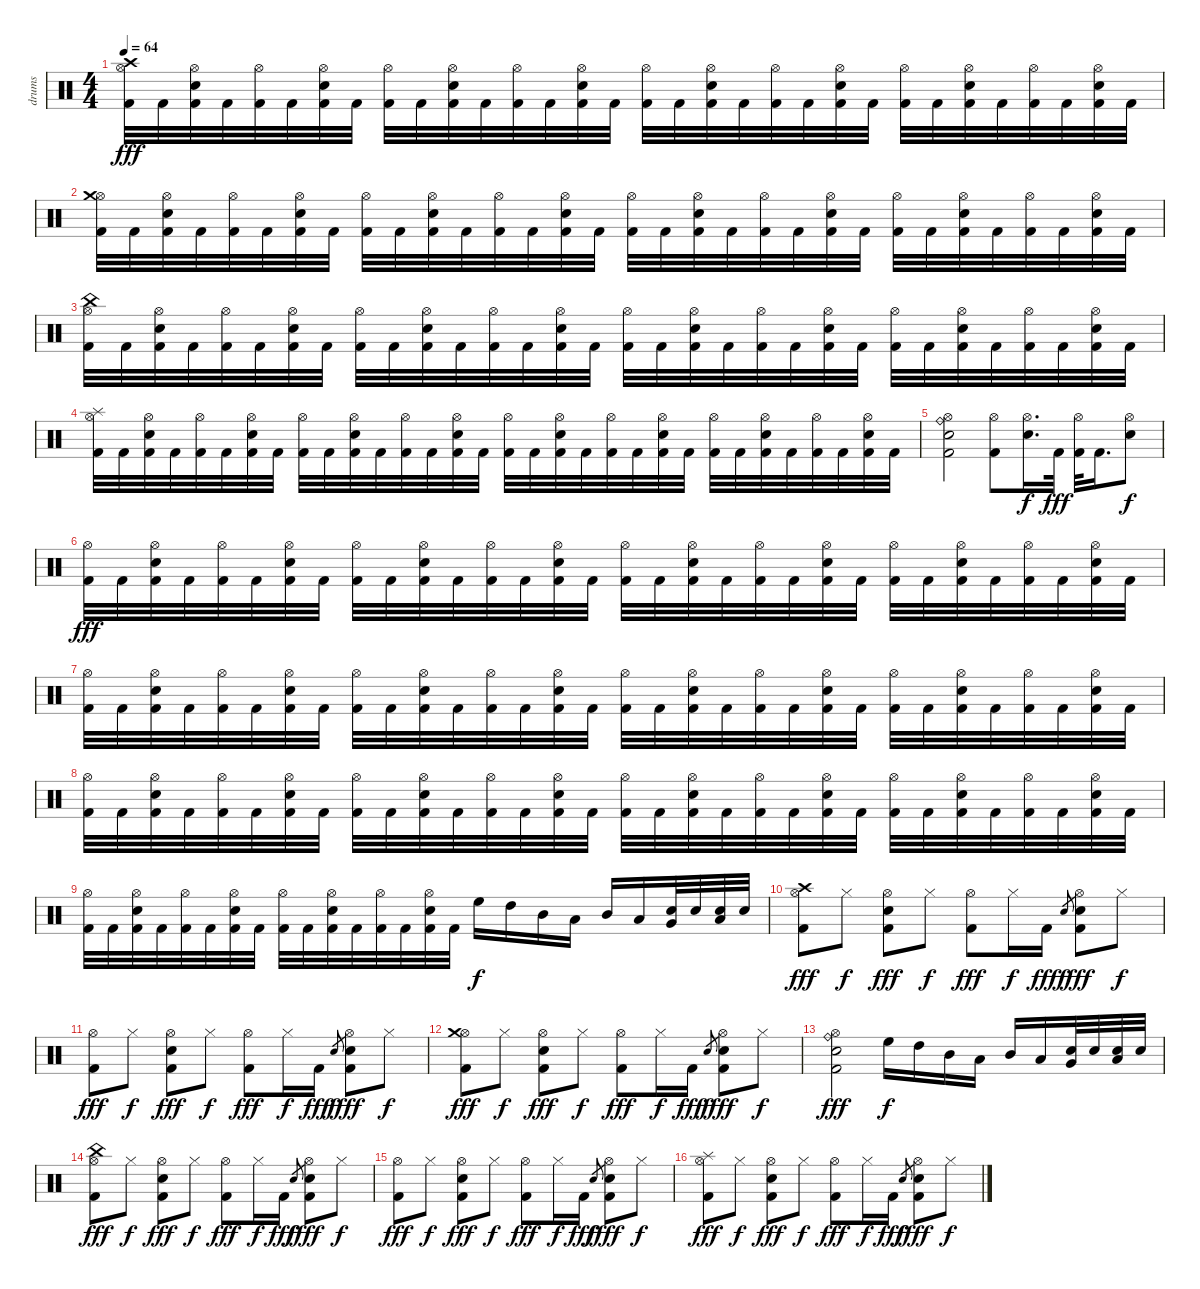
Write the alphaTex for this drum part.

\track ("drums" "drums") {instrument percussion}
\staff {score}
\articulation defaults
\ts (4 4)
\tempo 64
\clef neutral
\ks c
("Kick (hit) 2" "Hi-Hat (open)" "Crash high (hit)").32{dy fff} "Kick (hit) 2".32 ("Kick (hit) 2" "Hi-Hat (open)" "Electric Snare (hit)").32 "Kick (hit) 2".32 ("Kick (hit) 2" "Hi-Hat (open)").32 "Kick (hit) 2".32 ("Kick (hit) 2" "Hi-Hat (open)" "Electric Snare (hit)").32 "Kick (hit) 2".32 ("Kick (hit) 2" "Hi-Hat (open)").32 "Kick (hit) 2".32 ("Kick (hit) 2" "Hi-Hat (open)" "Electric Snare (hit)").32 "Kick (hit) 2".32 ("Kick (hit) 2" "Hi-Hat (open)").32 "Kick (hit) 2".32 ("Kick (hit) 2" "Hi-Hat (open)" "Electric Snare (hit)").32 "Kick (hit) 2".32 ("Kick (hit) 2" "Hi-Hat (open)").32 "Kick (hit) 2".32 ("Kick (hit) 2" "Hi-Hat (open)" "Electric Snare (hit)").32 "Kick (hit) 2".32 ("Kick (hit) 2" "Hi-Hat (open)").32 "Kick (hit) 2".32 ("Kick (hit) 2" "Hi-Hat (open)" "Electric Snare (hit)").32 "Kick (hit) 2".32 ("Kick (hit) 2" "Hi-Hat (open)").32 "Kick (hit) 2".32 ("Kick (hit) 2" "Hi-Hat (open)" "Electric Snare (hit)").32 "Kick (hit) 2".32 ("Kick (hit) 2" "Hi-Hat (open)").32 "Kick (hit) 2".32 ("Kick (hit) 2" "Hi-Hat (open)" "Electric Snare (hit)").32 "Kick (hit) 2".32 |
("Kick (hit) 2" "Hi-Hat (open)" "Crash medium (hit)").32 "Kick (hit) 2".32 ("Kick (hit) 2" "Hi-Hat (open)" "Electric Snare (hit)").32 "Kick (hit) 2".32 ("Kick (hit) 2" "Hi-Hat (open)").32 "Kick (hit) 2".32 ("Kick (hit) 2" "Hi-Hat (open)" "Electric Snare (hit)").32 "Kick (hit) 2".32 ("Kick (hit) 2" "Hi-Hat (open)").32 "Kick (hit) 2".32 ("Kick (hit) 2" "Hi-Hat (open)" "Electric Snare (hit)").32 "Kick (hit) 2".32 ("Kick (hit) 2" "Hi-Hat (open)").32 "Kick (hit) 2".32 ("Kick (hit) 2" "Hi-Hat (open)" "Electric Snare (hit)").32 "Kick (hit) 2".32 ("Kick (hit) 2" "Hi-Hat (open)").32 "Kick (hit) 2".32 ("Kick (hit) 2" "Hi-Hat (open)" "Electric Snare (hit)").32 "Kick (hit) 2".32 ("Kick (hit) 2" "Hi-Hat (open)").32 "Kick (hit) 2".32 ("Kick (hit) 2" "Hi-Hat (open)" "Electric Snare (hit)").32 "Kick (hit) 2".32 ("Kick (hit) 2" "Hi-Hat (open)").32 "Kick (hit) 2".32 ("Kick (hit) 2" "Hi-Hat (open)" "Electric Snare (hit)").32 "Kick (hit) 2".32 ("Kick (hit) 2" "Hi-Hat (open)").32 "Kick (hit) 2".32 ("Kick (hit) 2" "Hi-Hat (open)" "Electric Snare (hit)").32 "Kick (hit) 2".32 |
("Kick (hit) 2" "Hi-Hat (open)" "China (hit)").32 "Kick (hit) 2".32 ("Kick (hit) 2" "Hi-Hat (open)" "Electric Snare (hit)").32 "Kick (hit) 2".32 ("Kick (hit) 2" "Hi-Hat (open)").32 "Kick (hit) 2".32 ("Kick (hit) 2" "Hi-Hat (open)" "Electric Snare (hit)").32 "Kick (hit) 2".32 ("Kick (hit) 2" "Hi-Hat (open)").32 "Kick (hit) 2".32 ("Kick (hit) 2" "Hi-Hat (open)" "Electric Snare (hit)").32 "Kick (hit) 2".32 ("Kick (hit) 2" "Hi-Hat (open)").32 "Kick (hit) 2".32 ("Kick (hit) 2" "Hi-Hat (open)" "Electric Snare (hit)").32 "Kick (hit) 2".32 ("Kick (hit) 2" "Hi-Hat (open)").32 "Kick (hit) 2".32 ("Kick (hit) 2" "Hi-Hat (open)" "Electric Snare (hit)").32 "Kick (hit) 2".32 ("Kick (hit) 2" "Hi-Hat (open)").32 "Kick (hit) 2".32 ("Kick (hit) 2" "Hi-Hat (open)" "Electric Snare (hit)").32 "Kick (hit) 2".32 ("Kick (hit) 2" "Hi-Hat (open)").32 "Kick (hit) 2".32 ("Kick (hit) 2" "Hi-Hat (open)" "Electric Snare (hit)").32 "Kick (hit) 2".32 ("Kick (hit) 2" "Hi-Hat (open)").32 "Kick (hit) 2".32 ("Kick (hit) 2" "Hi-Hat (open)" "Electric Snare (hit)").32 "Kick (hit) 2".32 |
("Kick (hit) 2" "Hi-Hat (open)" "Splash (hit)").32 "Kick (hit) 2".32 ("Kick (hit) 2" "Hi-Hat (open)" "Electric Snare (hit)").32 "Kick (hit) 2".32 ("Kick (hit) 2" "Hi-Hat (open)").32 "Kick (hit) 2".32 ("Kick (hit) 2" "Hi-Hat (open)" "Electric Snare (hit)").32 "Kick (hit) 2".32 ("Kick (hit) 2" "Hi-Hat (open)").32 "Kick (hit) 2".32 ("Kick (hit) 2" "Hi-Hat (open)" "Electric Snare (hit)").32 "Kick (hit) 2".32 ("Kick (hit) 2" "Hi-Hat (open)").32 "Kick (hit) 2".32 ("Kick (hit) 2" "Hi-Hat (open)" "Electric Snare (hit)").32 "Kick (hit) 2".32 ("Kick (hit) 2" "Hi-Hat (open)").32 "Kick (hit) 2".32 ("Kick (hit) 2" "Hi-Hat (open)" "Electric Snare (hit)").32 "Kick (hit) 2".32 ("Kick (hit) 2" "Hi-Hat (open)").32 "Kick (hit) 2".32 ("Kick (hit) 2" "Hi-Hat (open)" "Electric Snare (hit)").32 "Kick (hit) 2".32 ("Kick (hit) 2" "Hi-Hat (open)").32 "Kick (hit) 2".32 ("Kick (hit) 2" "Hi-Hat (open)" "Electric Snare (hit)").32 "Kick (hit) 2".32 ("Kick (hit) 2" "Hi-Hat (open)").32 "Kick (hit) 2".32 ("Kick (hit) 2" "Hi-Hat (open)" "Electric Snare (hit)").32 "Kick (hit) 2".32 |
("Kick (hit) 2" "Hi-Hat (open)" "Electric Snare (hit)" "Ride (bell)").2 ("Kick (hit) 2" "Hi-Hat (open)").8 ("Snare (hit) 2" "Hi-Hat (open)").16{d dy f} "Kick (hit) 2".32{dy fff} ("Kick (hit) 2" "Hi-Hat (open)").32 "Kick (hit) 2".16{d} ("Snare (hit) 2" "Hi-Hat (open)").8{dy f} |
("Kick (hit) 2" "Hi-Hat (open)").32{dy fff} "Kick (hit) 2".32 ("Kick (hit) 2" "Hi-Hat (open)" "Electric Snare (hit)").32 "Kick (hit) 2".32 ("Kick (hit) 2" "Hi-Hat (open)").32 "Kick (hit) 2".32 ("Kick (hit) 2" "Hi-Hat (open)" "Electric Snare (hit)").32 "Kick (hit) 2".32 ("Kick (hit) 2" "Hi-Hat (open)").32 "Kick (hit) 2".32 ("Kick (hit) 2" "Hi-Hat (open)" "Electric Snare (hit)").32 "Kick (hit) 2".32 ("Kick (hit) 2" "Hi-Hat (open)").32 "Kick (hit) 2".32 ("Kick (hit) 2" "Hi-Hat (open)" "Electric Snare (hit)").32 "Kick (hit) 2".32 ("Kick (hit) 2" "Hi-Hat (open)").32 "Kick (hit) 2".32 ("Kick (hit) 2" "Hi-Hat (open)" "Electric Snare (hit)").32 "Kick (hit) 2".32 ("Kick (hit) 2" "Hi-Hat (open)").32 "Kick (hit) 2".32 ("Kick (hit) 2" "Hi-Hat (open)" "Electric Snare (hit)").32 "Kick (hit) 2".32 ("Kick (hit) 2" "Hi-Hat (open)").32 "Kick (hit) 2".32 ("Kick (hit) 2" "Hi-Hat (open)" "Electric Snare (hit)").32 "Kick (hit) 2".32 ("Kick (hit) 2" "Hi-Hat (open)").32 "Kick (hit) 2".32 ("Kick (hit) 2" "Hi-Hat (open)" "Electric Snare (hit)").32 "Kick (hit) 2".32 |
("Kick (hit) 2" "Hi-Hat (open)").32 "Kick (hit) 2".32 ("Kick (hit) 2" "Hi-Hat (open)" "Electric Snare (hit)").32 "Kick (hit) 2".32 ("Kick (hit) 2" "Hi-Hat (open)").32 "Kick (hit) 2".32 ("Kick (hit) 2" "Hi-Hat (open)" "Electric Snare (hit)").32 "Kick (hit) 2".32 ("Kick (hit) 2" "Hi-Hat (open)").32 "Kick (hit) 2".32 ("Kick (hit) 2" "Hi-Hat (open)" "Electric Snare (hit)").32 "Kick (hit) 2".32 ("Kick (hit) 2" "Hi-Hat (open)").32 "Kick (hit) 2".32 ("Kick (hit) 2" "Hi-Hat (open)" "Electric Snare (hit)").32 "Kick (hit) 2".32 ("Kick (hit) 2" "Hi-Hat (open)").32 "Kick (hit) 2".32 ("Kick (hit) 2" "Hi-Hat (open)" "Electric Snare (hit)").32 "Kick (hit) 2".32 ("Kick (hit) 2" "Hi-Hat (open)").32 "Kick (hit) 2".32 ("Kick (hit) 2" "Hi-Hat (open)" "Electric Snare (hit)").32 "Kick (hit) 2".32 ("Kick (hit) 2" "Hi-Hat (open)").32 "Kick (hit) 2".32 ("Kick (hit) 2" "Hi-Hat (open)" "Electric Snare (hit)").32 "Kick (hit) 2".32 ("Kick (hit) 2" "Hi-Hat (open)").32 "Kick (hit) 2".32 ("Kick (hit) 2" "Hi-Hat (open)" "Electric Snare (hit)").32 "Kick (hit) 2".32 |
("Kick (hit) 2" "Hi-Hat (open)").32 "Kick (hit) 2".32 ("Kick (hit) 2" "Hi-Hat (open)" "Electric Snare (hit)").32 "Kick (hit) 2".32 ("Kick (hit) 2" "Hi-Hat (open)").32 "Kick (hit) 2".32 ("Kick (hit) 2" "Hi-Hat (open)" "Electric Snare (hit)").32 "Kick (hit) 2".32 ("Kick (hit) 2" "Hi-Hat (open)").32 "Kick (hit) 2".32 ("Kick (hit) 2" "Hi-Hat (open)" "Electric Snare (hit)").32 "Kick (hit) 2".32 ("Kick (hit) 2" "Hi-Hat (open)").32 "Kick (hit) 2".32 ("Kick (hit) 2" "Hi-Hat (open)" "Electric Snare (hit)").32 "Kick (hit) 2".32 ("Kick (hit) 2" "Hi-Hat (open)").32 "Kick (hit) 2".32 ("Kick (hit) 2" "Hi-Hat (open)" "Electric Snare (hit)").32 "Kick (hit) 2".32 ("Kick (hit) 2" "Hi-Hat (open)").32 "Kick (hit) 2".32 ("Kick (hit) 2" "Hi-Hat (open)" "Electric Snare (hit)").32 "Kick (hit) 2".32 ("Kick (hit) 2" "Hi-Hat (open)").32 "Kick (hit) 2".32 ("Kick (hit) 2" "Hi-Hat (open)" "Electric Snare (hit)").32 "Kick (hit) 2".32 ("Kick (hit) 2" "Hi-Hat (open)").32 "Kick (hit) 2".32 ("Kick (hit) 2" "Hi-Hat (open)" "Electric Snare (hit)").32 "Kick (hit) 2".32 |
("Kick (hit) 2" "Hi-Hat (open)").32 "Kick (hit) 2".32 ("Kick (hit) 2" "Hi-Hat (open)" "Electric Snare (hit)").32 "Kick (hit) 2".32 ("Kick (hit) 2" "Hi-Hat (open)").32 "Kick (hit) 2".32 ("Kick (hit) 2" "Hi-Hat (open)" "Electric Snare (hit)").32 "Kick (hit) 2".32 ("Kick (hit) 2" "Hi-Hat (open)").32 "Kick (hit) 2".32 ("Kick (hit) 2" "Hi-Hat (open)" "Electric Snare (hit)").32 "Kick (hit) 2".32 ("Kick (hit) 2" "Hi-Hat (open)").32 "Kick (hit) 2".32 ("Kick (hit) 2" "Hi-Hat (open)" "Electric Snare (hit)").32 "Kick (hit) 2".32 "High Floor Tom (hit)".16{dy f} "High Tom (hit)".16 "Mid Tom (hit)".16 "Low Tom (hit)".16 "Mid Tom (hit)".16 "Low Tom (hit)".16 ("Electric Snare (hit)" "Very Low Tom (hit)").32 "Electric Snare (hit)".32 ("Electric Snare (hit)" "Low Floor Tom (hit)").32 "Electric Snare (hit)".32 |
("Kick (hit) 2" "Hi-Hat (open)" "Crash high (hit)").8{dy fff} "Hi-Hat (closed)".8{dy f} ("Kick (hit) 2" "Hi-Hat (open)" "Electric Snare (hit)").8{dy fff} "Hi-Hat (closed)".8{dy f} ("Kick (hit) 2" "Hi-Hat (open)").8{dy fff} "Hi-Hat (closed)".16{dy f} "Kick (hit) 2".16{dy fff} "Electric Snare (hit)".8{gr dy f} ("Kick (hit) 2" "Hi-Hat (open)" "Electric Snare (hit)").8{dy fff} "Hi-Hat (closed)".8{dy f} |
("Kick (hit) 2" "Hi-Hat (open)").8{dy fff} "Hi-Hat (closed)".8{dy f} ("Kick (hit) 2" "Hi-Hat (open)" "Electric Snare (hit)").8{dy fff} "Hi-Hat (closed)".8{dy f} ("Kick (hit) 2" "Hi-Hat (open)").8{dy fff} "Hi-Hat (closed)".16{dy f} "Kick (hit) 2".16{dy fff} "Electric Snare (hit)".8{gr dy f} ("Kick (hit) 2" "Hi-Hat (open)" "Electric Snare (hit)").8{dy fff} "Hi-Hat (closed)".8{dy f} |
("Kick (hit) 2" "Hi-Hat (open)" "Crash medium (hit)").8{dy fff} "Hi-Hat (closed)".8{dy f} ("Kick (hit) 2" "Hi-Hat (open)" "Electric Snare (hit)").8{dy fff} "Hi-Hat (closed)".8{dy f} ("Kick (hit) 2" "Hi-Hat (open)").8{dy fff} "Hi-Hat (closed)".16{dy f} "Kick (hit) 2".16{dy fff} "Electric Snare (hit)".8{gr dy f} ("Kick (hit) 2" "Hi-Hat (open)" "Electric Snare (hit)").8{dy fff} "Hi-Hat (closed)".8{dy f} |
("Kick (hit) 2" "Hi-Hat (open)" "Electric Snare (hit)" "Ride (bell)").2{dy fff} "High Floor Tom (hit)".16{dy f} "High Tom (hit)".16 "Mid Tom (hit)".16 "Low Tom (hit)".16 "Mid Tom (hit)".16 "Low Tom (hit)".16 ("Electric Snare (hit)" "Very Low Tom (hit)").32 "Electric Snare (hit)".32 ("Electric Snare (hit)" "Low Floor Tom (hit)").32 "Electric Snare (hit)".32 |
("Kick (hit) 2" "Hi-Hat (open)" "China (hit)").8{dy fff} "Hi-Hat (closed)".8{dy f} ("Kick (hit) 2" "Hi-Hat (open)" "Electric Snare (hit)").8{dy fff} "Hi-Hat (closed)".8{dy f} ("Kick (hit) 2" "Hi-Hat (open)").8{dy fff} "Hi-Hat (closed)".16{dy f} "Kick (hit) 2".16{dy fff} "Electric Snare (hit)".8{gr dy f} ("Kick (hit) 2" "Hi-Hat (open)" "Electric Snare (hit)").8{dy fff} "Hi-Hat (closed)".8{dy f} |
("Kick (hit) 2" "Hi-Hat (open)").8{dy fff} "Hi-Hat (closed)".8{dy f} ("Kick (hit) 2" "Hi-Hat (open)" "Electric Snare (hit)").8{dy fff} "Hi-Hat (closed)".8{dy f} ("Kick (hit) 2" "Hi-Hat (open)").8{dy fff} "Hi-Hat (closed)".16{dy f} "Kick (hit) 2".16{dy fff} "Electric Snare (hit)".8{gr dy f} ("Kick (hit) 2" "Hi-Hat (open)" "Electric Snare (hit)").8{dy fff} "Hi-Hat (closed)".8{dy f} |
("Kick (hit) 2" "Hi-Hat (open)" "Splash (hit)").8{dy fff} "Hi-Hat (closed)".8{dy f} ("Kick (hit) 2" "Hi-Hat (open)" "Electric Snare (hit)").8{dy fff} "Hi-Hat (closed)".8{dy f} ("Kick (hit) 2" "Hi-Hat (open)").8{dy fff} "Hi-Hat (closed)".16{dy f} "Kick (hit) 2".16{dy fff} "Electric Snare (hit)".8{gr dy f} ("Kick (hit) 2" "Hi-Hat (open)" "Electric Snare (hit)").8{dy fff} "Hi-Hat (closed)".8{dy f}
